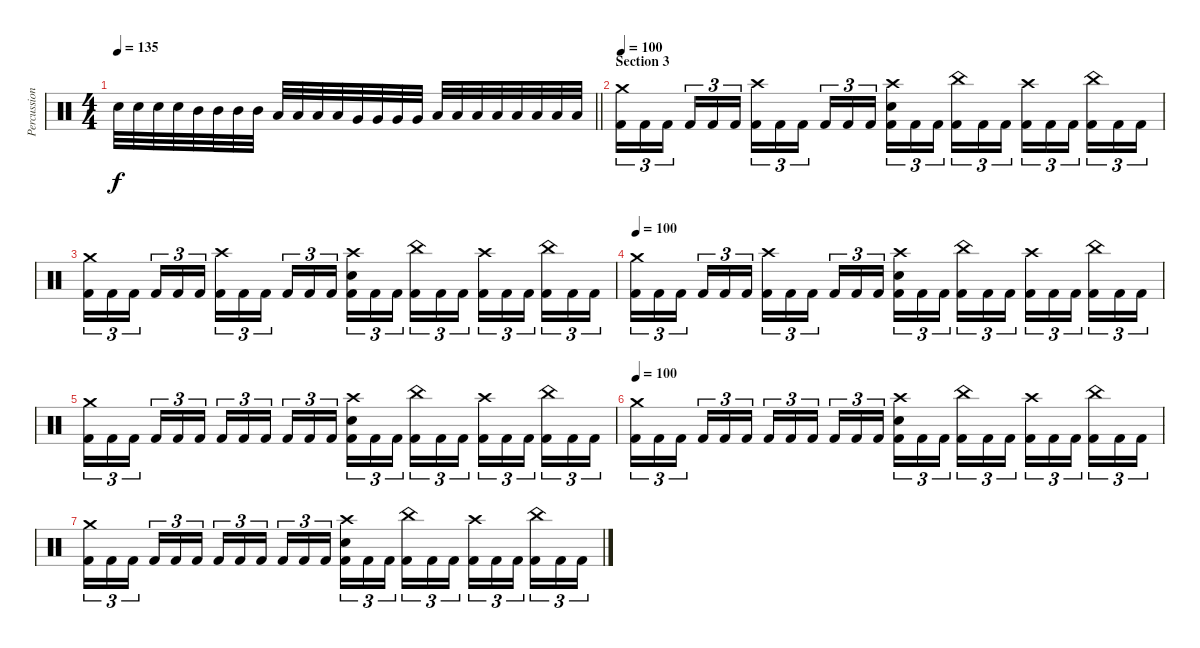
\track ("Percussion" "Percussion") {instrument percussion}
\staff {score}
\articulation defaults
\ts (4 4)
\tempo 135
\clef neutral
\barLineRight lightlight
\ks c "Snare (hit) 2".32{dy f} "Snare (hit) 2".32 "Snare (hit) 2".32 "Snare (hit) 2".32 "Mid Tom (hit)".32 "Mid Tom (hit)".32 "Mid Tom (hit)".32 "Mid Tom (hit)".32 "Low Tom (hit)".32 "Low Tom (hit)".32 "Low Tom (hit)".32 "Low Tom (hit)".32 "Very Low Tom (hit)".32 "Very Low Tom (hit)".32 "Very Low Tom (hit)".32 "Very Low Tom (hit)".32 "Low Floor Tom (hit)".32 "Low Floor Tom (hit)".32 "Low Floor Tom (hit)".32 "Low Floor Tom (hit)".32 "Low Floor Tom (hit)".32 "Low Floor Tom (hit)".32 "Low Floor Tom (hit)".32 "Low Floor Tom (hit)".32
|
\section ("" "Section 3")
\tempo 100
("Crash medium (hit)" "Kick (hit) 2").16{tu (3 2)} "Kick (hit) 2".16{tu (3 2)} "Kick (hit) 2".16{tu (3 2) beam splitsecondary} "Kick (hit) 2".16{tu (3 2)} "Kick (hit) 2".16{tu (3 2)} "Kick (hit) 2".16{tu (3 2)} ("Crash high (hit)" "Kick (hit) 2").16{tu (3 2)} "Kick (hit) 2".16{tu (3 2)} "Kick (hit) 2".16{tu (3 2) beam splitsecondary} "Kick (hit) 2".16{tu (3 2)} "Kick (hit) 2".16{tu (3 2)} "Kick (hit) 2".16{tu (3 2)} ("Crash high (hit)" "Snare (hit) 2" "Kick (hit) 2").16{tu (3 2)} "Kick (hit) 2".16{tu (3 2)} "Kick (hit) 2".16{tu (3 2) beam splitsecondary} ("China (hit)" "Kick (hit) 2").16{tu (3 2)} "Kick (hit) 2".16{tu (3 2)} "Kick (hit) 2".16{tu (3 2)} ("Crash high (hit)" "Kick (hit) 2").16{tu (3 2)} "Kick (hit) 2".16{tu (3 2)} "Kick (hit) 2".16{tu (3 2) beam splitsecondary} ("China (hit)" "Kick (hit) 2").16{tu (3 2)} "Kick (hit) 2".16{tu (3 2)} "Kick (hit) 2".16{tu (3 2)} |
("Crash medium (hit)" "Kick (hit) 2").16{tu (3 2)} "Kick (hit) 2".16{tu (3 2)} "Kick (hit) 2".16{tu (3 2) beam splitsecondary} "Kick (hit) 2".16{tu (3 2)} "Kick (hit) 2".16{tu (3 2)} "Kick (hit) 2".16{tu (3 2)} ("Crash high (hit)" "Kick (hit) 2").16{tu (3 2)} "Kick (hit) 2".16{tu (3 2)} "Kick (hit) 2".16{tu (3 2) beam splitsecondary} "Kick (hit) 2".16{tu (3 2)} "Kick (hit) 2".16{tu (3 2)} "Kick (hit) 2".16{tu (3 2)} ("Crash high (hit)" "Snare (hit) 2" "Kick (hit) 2").16{tu (3 2)} "Kick (hit) 2".16{tu (3 2)} "Kick (hit) 2".16{tu (3 2) beam splitsecondary} ("China (hit)" "Kick (hit) 2").16{tu (3 2)} "Kick (hit) 2".16{tu (3 2)} "Kick (hit) 2".16{tu (3 2)} ("Crash high (hit)" "Kick (hit) 2").16{tu (3 2)} "Kick (hit) 2".16{tu (3 2)} "Kick (hit) 2".16{tu (3 2) beam splitsecondary} ("China (hit)" "Kick (hit) 2").16{tu (3 2)} "Kick (hit) 2".16{tu (3 2)} "Kick (hit) 2".16{tu (3 2)} |
\tempo 100
("Crash medium (hit)" "Kick (hit) 2").16{tu (3 2)} "Kick (hit) 2".16{tu (3 2)} "Kick (hit) 2".16{tu (3 2) beam splitsecondary} "Kick (hit) 2".16{tu (3 2)} "Kick (hit) 2".16{tu (3 2)} "Kick (hit) 2".16{tu (3 2)} ("Crash high (hit)" "Kick (hit) 2").16{tu (3 2)} "Kick (hit) 2".16{tu (3 2)} "Kick (hit) 2".16{tu (3 2) beam splitsecondary} "Kick (hit) 2".16{tu (3 2)} "Kick (hit) 2".16{tu (3 2)} "Kick (hit) 2".16{tu (3 2)} ("Crash high (hit)" "Snare (hit) 2" "Kick (hit) 2").16{tu (3 2)} "Kick (hit) 2".16{tu (3 2)} "Kick (hit) 2".16{tu (3 2) beam splitsecondary} ("China (hit)" "Kick (hit) 2").16{tu (3 2)} "Kick (hit) 2".16{tu (3 2)} "Kick (hit) 2".16{tu (3 2)} ("Crash high (hit)" "Kick (hit) 2").16{tu (3 2)} "Kick (hit) 2".16{tu (3 2)} "Kick (hit) 2".16{tu (3 2) beam splitsecondary} ("China (hit)" "Kick (hit) 2").16{tu (3 2)} "Kick (hit) 2".16{tu (3 2)} "Kick (hit) 2".16{tu (3 2)} |
("Crash medium (hit)" "Kick (hit) 2").16{tu (3 2)} "Kick (hit) 2".16{tu (3 2)} "Kick (hit) 2".16{tu (3 2) beam splitsecondary} "Kick (hit) 2".16{tu (3 2)} "Kick (hit) 2".16{tu (3 2)} "Kick (hit) 2".16{tu (3 2)} "Kick (hit) 2".16{tu (3 2)} "Kick (hit) 2".16{tu (3 2)} "Kick (hit) 2".16{tu (3 2) beam splitsecondary} "Kick (hit) 2".16{tu (3 2)} "Kick (hit) 2".16{tu (3 2)} "Kick (hit) 2".16{tu (3 2)} ("Crash high (hit)" "Snare (hit) 2" "Kick (hit) 2").16{tu (3 2)} "Kick (hit) 2".16{tu (3 2)} "Kick (hit) 2".16{tu (3 2) beam splitsecondary} ("China (hit)" "Kick (hit) 2").16{tu (3 2)} "Kick (hit) 2".16{tu (3 2)} "Kick (hit) 2".16{tu (3 2)} ("Crash high (hit)" "Kick (hit) 2").16{tu (3 2)} "Kick (hit) 2".16{tu (3 2)} "Kick (hit) 2".16{tu (3 2) beam splitsecondary} ("China (hit)" "Kick (hit) 2").16{tu (3 2)} "Kick (hit) 2".16{tu (3 2)} "Kick (hit) 2".16{tu (3 2)} |
\tempo 100
("Crash medium (hit)" "Kick (hit) 2").16{tu (3 2)} "Kick (hit) 2".16{tu (3 2)} "Kick (hit) 2".16{tu (3 2) beam splitsecondary} "Kick (hit) 2".16{tu (3 2)} "Kick (hit) 2".16{tu (3 2)} "Kick (hit) 2".16{tu (3 2)} "Kick (hit) 2".16{tu (3 2)} "Kick (hit) 2".16{tu (3 2)} "Kick (hit) 2".16{tu (3 2) beam splitsecondary} "Kick (hit) 2".16{tu (3 2)} "Kick (hit) 2".16{tu (3 2)} "Kick (hit) 2".16{tu (3 2)} ("Crash high (hit)" "Snare (hit) 2" "Kick (hit) 2").16{tu (3 2)} "Kick (hit) 2".16{tu (3 2)} "Kick (hit) 2".16{tu (3 2) beam splitsecondary} ("China (hit)" "Kick (hit) 2").16{tu (3 2)} "Kick (hit) 2".16{tu (3 2)} "Kick (hit) 2".16{tu (3 2)} ("Crash high (hit)" "Kick (hit) 2").16{tu (3 2)} "Kick (hit) 2".16{tu (3 2)} "Kick (hit) 2".16{tu (3 2) beam splitsecondary} ("China (hit)" "Kick (hit) 2").16{tu (3 2)} "Kick (hit) 2".16{tu (3 2)} "Kick (hit) 2".16{tu (3 2)} |
("Crash medium (hit)" "Kick (hit) 2").16{tu (3 2)} "Kick (hit) 2".16{tu (3 2)} "Kick (hit) 2".16{tu (3 2) beam splitsecondary} "Kick (hit) 2".16{tu (3 2)} "Kick (hit) 2".16{tu (3 2)} "Kick (hit) 2".16{tu (3 2)} "Kick (hit) 2".16{tu (3 2)} "Kick (hit) 2".16{tu (3 2)} "Kick (hit) 2".16{tu (3 2) beam splitsecondary} "Kick (hit) 2".16{tu (3 2)} "Kick (hit) 2".16{tu (3 2)} "Kick (hit) 2".16{tu (3 2)} ("Crash high (hit)" "Snare (hit) 2" "Kick (hit) 2").16{tu (3 2)} "Kick (hit) 2".16{tu (3 2)} "Kick (hit) 2".16{tu (3 2) beam splitsecondary} ("China (hit)" "Kick (hit) 2").16{tu (3 2)} "Kick (hit) 2".16{tu (3 2)} "Kick (hit) 2".16{tu (3 2)} ("Crash high (hit)" "Kick (hit) 2").16{tu (3 2)} "Kick (hit) 2".16{tu (3 2)} "Kick (hit) 2".16{tu (3 2) beam splitsecondary} ("China (hit)" "Kick (hit) 2").16{tu (3 2)} "Kick (hit) 2".16{tu (3 2)} "Kick (hit) 2".16{tu (3 2)}
